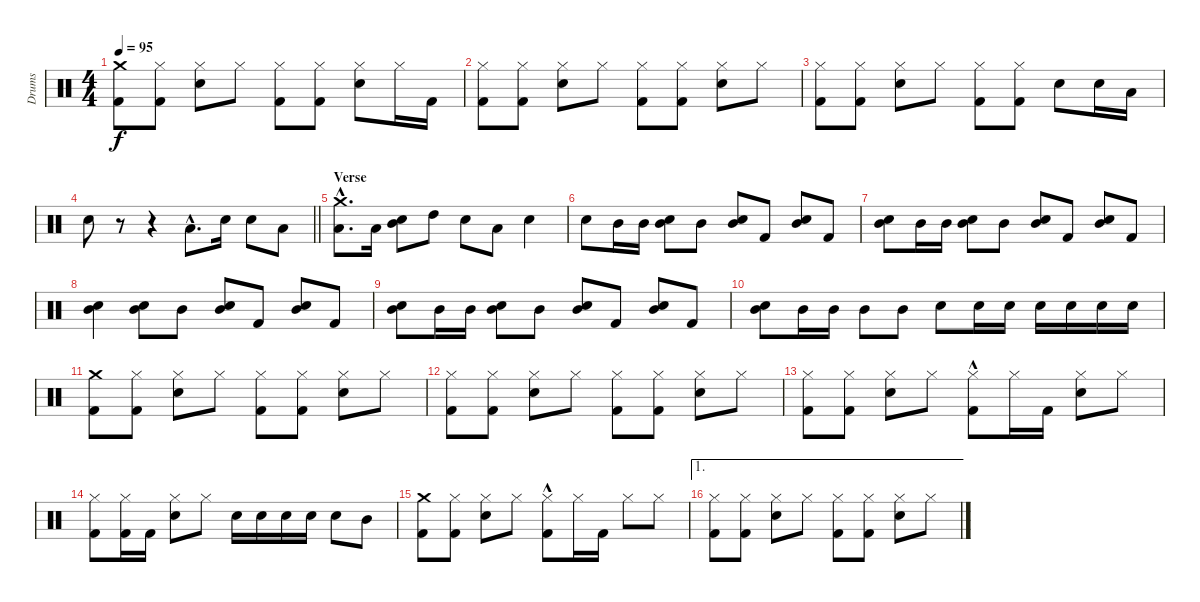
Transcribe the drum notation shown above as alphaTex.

\track ("Drums" "Drums") {instrument percussion}
\staff {score}
\articulation defaults
\ts (4 4)
\tempo 95
\clef neutral
\ks c
("Crash medium (hit)" "Kick (hit) 2").8{dy f} ("Hi-Hat (closed)" "Kick (hit) 2").8 ("Hi-Hat (closed)" "Snare (hit) 2").8 "Hi-Hat (closed)".8 ("Hi-Hat (closed)" "Kick (hit) 2").8 ("Hi-Hat (closed)" "Kick (hit) 2").8 ("Hi-Hat (closed)" "Snare (hit) 2").8 "Hi-Hat (closed)".16 "Kick (hit) 2".16 |
("Hi-Hat (closed)" "Kick (hit) 2").8 ("Hi-Hat (closed)" "Kick (hit) 2").8 ("Hi-Hat (closed)" "Snare (hit) 2").8 "Hi-Hat (closed)".8 ("Hi-Hat (closed)" "Kick (hit) 2").8 ("Hi-Hat (closed)" "Kick (hit) 2").8 ("Hi-Hat (closed)" "Snare (hit) 2").8 "Hi-Hat (closed)".8 |
("Hi-Hat (closed)" "Kick (hit) 2").8 ("Hi-Hat (closed)" "Kick (hit) 2").8 ("Hi-Hat (closed)" "Snare (hit) 2").8 "Hi-Hat (closed)".8 ("Hi-Hat (closed)" "Kick (hit) 2").8 ("Hi-Hat (closed)" "Kick (hit) 2").8 "Snare (hit) 2".8 "Snare (hit) 2".16 "Low Tom (hit)".16 |
\barLineRight lightlight "Snare (hit) 2".8
r.8 r.4 "Low Tom (hit)"{hac}.8{d} "Snare (hit) 2".16 "Snare (hit) 2".8 "Low Tom (hit)".8 |
\section ("" "Verse")
("Crash medium (hit)"{hac} "Low Tom (hit)"{hac}).8{d} "Low Tom (hit)".16 ("Mid Tom (hit)" "Snare (hit) 2").8 "High Tom (hit)".8 "Snare (hit) 2".8 "Low Tom (hit)".8 "Snare (hit) 2".4 |
"Snare (hit) 2".8 "Mid Tom (hit)".16 "Mid Tom (hit)".16 ("Snare (hit) 2" "Mid Tom (hit)").8 "Mid Tom (hit)".8 ("Snare (hit) 2" "Mid Tom (hit)").8 "Kick (hit) 2".8 ("Snare (hit) 2" "Mid Tom (hit)").8 "Kick (hit) 2".8 |
("Snare (hit) 2" "Mid Tom (hit)").8 "Mid Tom (hit)".16 "Mid Tom (hit)".16 ("Mid Tom (hit)" "Snare (hit) 2").8 "Mid Tom (hit)".8 ("Mid Tom (hit)" "Snare (hit) 2").8 "Kick (hit) 2".8 ("Mid Tom (hit)" "Snare (hit) 2").8 "Kick (hit) 2".8 |
("Mid Tom (hit)" "Snare (hit) 2").4 ("Mid Tom (hit)" "Snare (hit) 2").8 "Mid Tom (hit)".8 ("Mid Tom (hit)" "Snare (hit) 2").8 "Kick (hit) 2".8 ("Mid Tom (hit)" "Snare (hit) 2").8 "Kick (hit) 2".8 |
("Mid Tom (hit)" "Snare (hit) 2").8 "Mid Tom (hit)".16 "Mid Tom (hit)".16 ("Mid Tom (hit)" "Snare (hit) 2").8 "Mid Tom (hit)".8 ("Mid Tom (hit)" "Snare (hit) 2").8 "Kick (hit) 2".8 ("Mid Tom (hit)" "Snare (hit) 2").8 "Kick (hit) 2".8 |
("Mid Tom (hit)" "Snare (hit) 2").8 "Mid Tom (hit)".16 "Mid Tom (hit)".16 "Mid Tom (hit)".8 "Mid Tom (hit)".8 "Snare (hit) 2".8 "Snare (hit) 2".16 "Snare (hit) 2".16 "Snare (hit) 2".16 "Snare (hit) 2".16 "Snare (hit) 2".16 "Snare (hit) 2".16 |
("Crash medium (hit)" "Kick (hit) 2").8 ("Hi-Hat (closed)" "Kick (hit) 2").8 ("Hi-Hat (closed)" "Snare (hit) 2").8 "Hi-Hat (closed)".8 ("Hi-Hat (closed)" "Kick (hit) 2").8 ("Hi-Hat (closed)" "Kick (hit) 2").8 ("Hi-Hat (closed)" "Snare (hit) 2").8 "Hi-Hat (closed)".8 |
("Hi-Hat (closed)" "Kick (hit) 2").8 ("Hi-Hat (closed)" "Kick (hit) 2").8 ("Hi-Hat (closed)" "Snare (hit) 2").8 "Hi-Hat (closed)".8 ("Hi-Hat (closed)" "Kick (hit) 2").8 ("Hi-Hat (closed)" "Kick (hit) 2").8 ("Hi-Hat (closed)" "Snare (hit) 2").8 "Hi-Hat (closed)".8 |
("Hi-Hat (closed)" "Kick (hit) 2").8 ("Hi-Hat (closed)" "Kick (hit) 2").8 ("Hi-Hat (closed)" "Snare (hit) 2").8 "Hi-Hat (closed)".8 ("Hi-Hat (closed)" "Kick (hit) 2"{hac}).8 "Hi-Hat (closed)".16 "Kick (hit) 2".16 ("Hi-Hat (closed)" "Snare (hit) 2").8 "Hi-Hat (closed)".8 |
("Hi-Hat (closed)" "Kick (hit) 2").8 ("Hi-Hat (closed)" "Kick (hit) 2").16 "Kick (hit) 2".16 ("Hi-Hat (closed)" "Snare (hit) 2").8 "Hi-Hat (closed)".8 "Snare (hit) 2".16 "Snare (hit) 2".16 "Snare (hit) 2".16 "Snare (hit) 2".16 "Snare (hit) 2".8 "Mid Tom (hit)".8 |
("Crash medium (hit)" "Kick (hit) 2").8 ("Hi-Hat (closed)" "Kick (hit) 2").8 ("Hi-Hat (closed)" "Snare (hit) 2").8 "Hi-Hat (closed)".8 ("Hi-Hat (closed)" "Kick (hit) 2"{hac}).8 "Hi-Hat (closed)".16 "Kick (hit) 2".16 "Hi-Hat (closed)".8 "Hi-Hat (closed)".8 |
\ae 1
("Hi-Hat (closed)" "Kick (hit) 2").8 ("Hi-Hat (closed)" "Kick (hit) 2").8 ("Hi-Hat (closed)" "Snare (hit) 2").8 "Hi-Hat (closed)".8 ("Hi-Hat (closed)" "Kick (hit) 2").8 ("Hi-Hat (closed)" "Kick (hit) 2").8 ("Hi-Hat (closed)" "Snare (hit) 2").8 "Hi-Hat (closed)".8
